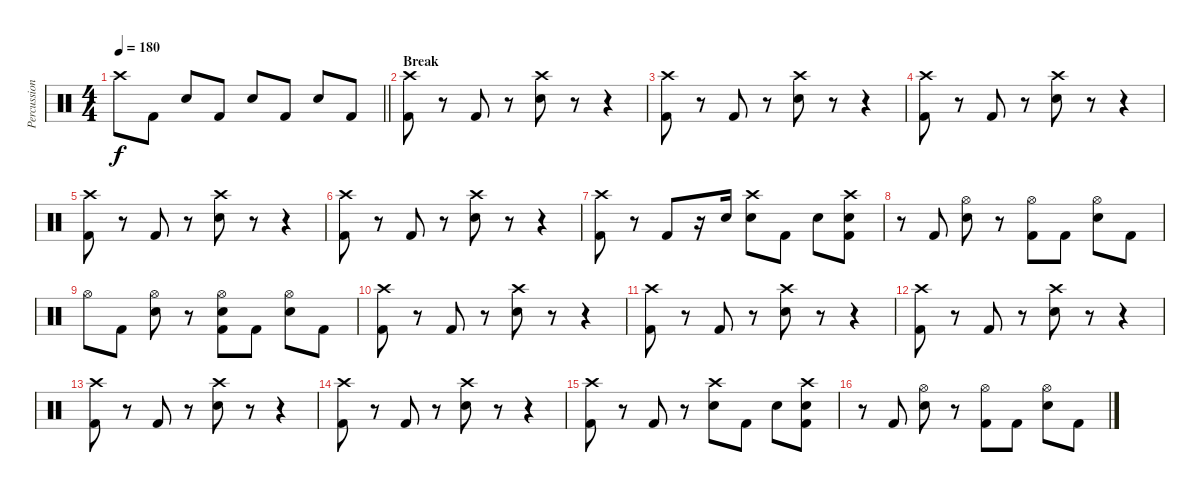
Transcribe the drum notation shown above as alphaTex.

\track ("Percussion" "Percussion") {instrument percussion}
\staff {score}
\articulation defaults
\ts (4 4)
\tempo 180
\clef neutral
\barLineRight lightlight
\ks c "Crash high (hit)".8{dy f} "Kick (hit) 2".8 "Electric Snare (hit)".8 "Kick (hit) 2".8 "Electric Snare (hit)".8 "Kick (hit) 2".8 "Electric Snare (hit)".8 "Kick (hit) 2".8
|
\section ("" "Break")
("Crash high (hit)" "Kick (hit) 2").8 r.8 "Kick (hit) 2".8 r.8 ("Crash high (hit)" "Electric Snare (hit)").8 r.8 r.4 |
("Crash high (hit)" "Kick (hit) 2").8 r.8 "Kick (hit) 2".8 r.8 ("Crash high (hit)" "Electric Snare (hit)").8 r.8 r.4 |
("Crash high (hit)" "Kick (hit) 2").8 r.8 "Kick (hit) 2".8 r.8 ("Crash high (hit)" "Electric Snare (hit)").8 r.8 r.4 |
("Crash high (hit)" "Kick (hit) 2").8 r.8 "Kick (hit) 2".8 r.8 ("Crash high (hit)" "Electric Snare (hit)").8 r.8 r.4 |
("Crash high (hit)" "Kick (hit) 2").8 r.8 "Kick (hit) 2".8 r.8 ("Crash high (hit)" "Electric Snare (hit)").8 r.8 r.4 |
("Crash high (hit)" "Kick (hit) 2").8 r.8 "Kick (hit) 2".8 r.16 "Electric Snare (hit)".16 ("Crash high (hit)" "Electric Snare (hit)").8 "Kick (hit) 2".8 "Electric Snare (hit)".8 ("Crash high (hit)" "Electric Snare (hit)" "Kick (hit) 2").8 |
r.8 "Kick (hit) 2".8 ("Hi-Hat (open)" "Electric Snare (hit)").8 r.8 ("Hi-Hat (open)" "Kick (hit) 2").8 "Kick (hit) 2".8 ("Hi-Hat (open)" "Electric Snare (hit)").8 "Kick (hit) 2".8 |
"Hi-Hat (open)".8 "Kick (hit) 2".8 ("Hi-Hat (open)" "Electric Snare (hit)").8 r.8 ("Hi-Hat (open)" "Electric Snare (hit)" "Kick (hit) 2").8 "Kick (hit) 2".8 ("Hi-Hat (open)" "Electric Snare (hit)").8 "Kick (hit) 2".8 |
("Crash high (hit)" "Kick (hit) 2").8 r.8 "Kick (hit) 2".8 r.8 ("Crash high (hit)" "Electric Snare (hit)").8 r.8 r.4 |
("Crash high (hit)" "Kick (hit) 2").8 r.8 "Kick (hit) 2".8 r.8 ("Crash high (hit)" "Electric Snare (hit)").8 r.8 r.4 |
("Crash high (hit)" "Kick (hit) 2").8 r.8 "Kick (hit) 2".8 r.8 ("Crash high (hit)" "Electric Snare (hit)").8 r.8 r.4 |
("Crash high (hit)" "Kick (hit) 2").8 r.8 "Kick (hit) 2".8 r.8 ("Crash high (hit)" "Electric Snare (hit)").8 r.8 r.4 |
("Crash high (hit)" "Kick (hit) 2").8 r.8 "Kick (hit) 2".8 r.8 ("Crash high (hit)" "Electric Snare (hit)").8 r.8 r.4 |
("Crash high (hit)" "Kick (hit) 2").8 r.8 "Kick (hit) 2".8 r.8 ("Crash high (hit)" "Electric Snare (hit)").8 "Kick (hit) 2".8 "Electric Snare (hit)".8 ("Crash high (hit)" "Electric Snare (hit)" "Kick (hit) 2").8 |
r.8 "Kick (hit) 2".8 ("Hi-Hat (open)" "Electric Snare (hit)").8 r.8 ("Hi-Hat (open)" "Kick (hit) 2").8 "Kick (hit) 2".8 ("Hi-Hat (open)" "Electric Snare (hit)").8 "Kick (hit) 2".8
